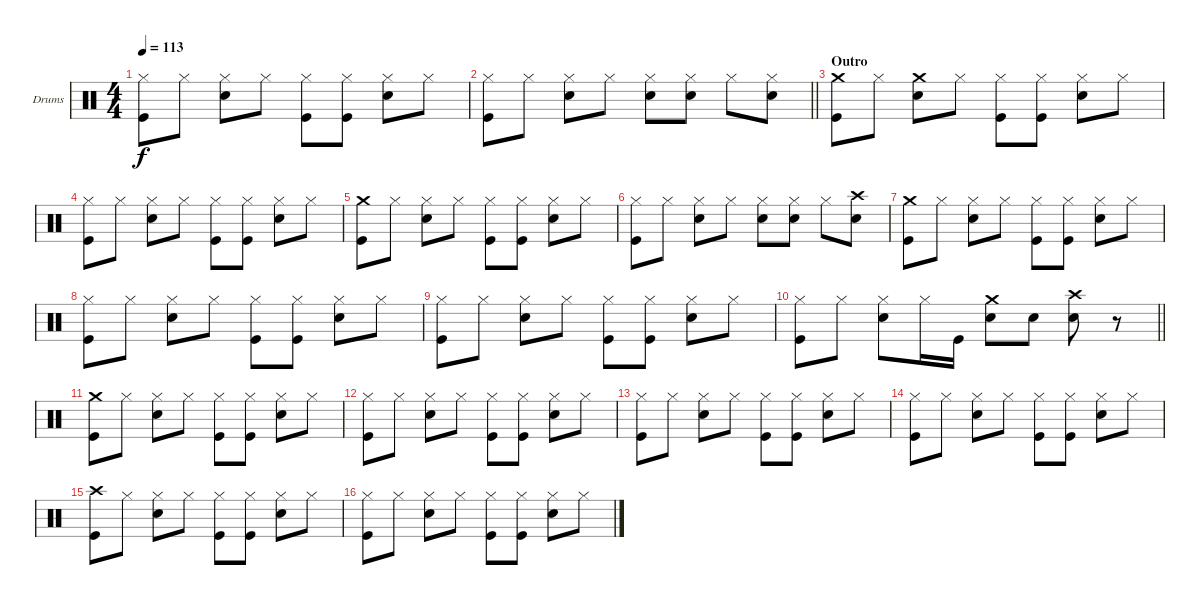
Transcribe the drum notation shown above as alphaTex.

\bracketExtendMode groupsimilarinstruments
\firstSystemTrackNameOrientation horizontal
\otherSystemsTrackNameOrientation horizontal
\track ("Drumkit" "Drums") {instrument percussion}
\staff {score}
\articulation defaults
\ts (4 4)
\tempo 113
\clef neutral
\ks c
("Hi-Hat (closed)" "Kick (hit)").8{dy f} "Hi-Hat (closed)".8 ("Hi-Hat (closed)" "Snare (hit) 2").8 "Hi-Hat (closed)".8 ("Hi-Hat (closed)" "Kick (hit)").8 ("Hi-Hat (closed)" "Kick (hit)").8 ("Hi-Hat (closed)" "Snare (hit) 2").8 "Hi-Hat (closed)".8 |
\barLineRight lightlight
("Hi-Hat (closed)" "Kick (hit)").8 "Hi-Hat (closed)".8 ("Hi-Hat (closed)" "Snare (hit) 2").8 "Hi-Hat (closed)".8 ("Hi-Hat (closed)" "Snare (hit) 2").8 ("Hi-Hat (closed)" "Snare (hit) 2").8 "Hi-Hat (closed)".8 ("Hi-Hat (closed)" "Snare (hit) 2").8 |
\section ("" "Outro")
("Crash medium (hit)" "Kick (hit)").8 "Hi-Hat (closed)".8 ("Crash medium (hit)" "Snare (hit) 2").8 "Hi-Hat (closed)".8 ("Hi-Hat (closed)" "Kick (hit)").8 ("Hi-Hat (closed)" "Kick (hit)").8 ("Hi-Hat (closed)" "Snare (hit) 2").8 "Hi-Hat (closed)".8 |
("Hi-Hat (closed)" "Kick (hit)").8 "Hi-Hat (closed)".8 ("Hi-Hat (closed)" "Snare (hit) 2").8 "Hi-Hat (closed)".8 ("Hi-Hat (closed)" "Kick (hit)").8 ("Hi-Hat (closed)" "Kick (hit)").8 ("Hi-Hat (closed)" "Snare (hit) 2").8 "Hi-Hat (closed)".8 |
("Crash medium (hit)" "Kick (hit)").8 "Hi-Hat (closed)".8 ("Hi-Hat (closed)" "Snare (hit) 2").8 "Hi-Hat (closed)".8 ("Hi-Hat (closed)" "Kick (hit)").8 ("Hi-Hat (closed)" "Kick (hit)").8 ("Hi-Hat (closed)" "Snare (hit) 2").8 "Hi-Hat (closed)".8 |
("Hi-Hat (closed)" "Kick (hit)").8 "Hi-Hat (closed)".8 ("Hi-Hat (closed)" "Snare (hit) 2").8 "Hi-Hat (closed)".8 ("Hi-Hat (closed)" "Snare (hit) 2").8 ("Hi-Hat (closed)" "Snare (hit) 2").8 "Hi-Hat (closed)".8 ("Crash high (hit)" "Snare (hit) 2").8 |
("Crash medium (hit)" "Kick (hit)").8 "Hi-Hat (closed)".8 ("Hi-Hat (closed)" "Snare (hit) 2").8 "Hi-Hat (closed)".8 ("Hi-Hat (closed)" "Kick (hit)").8 ("Hi-Hat (closed)" "Kick (hit)").8 ("Hi-Hat (closed)" "Snare (hit) 2").8 "Hi-Hat (closed)".8 |
("Hi-Hat (closed)" "Kick (hit)").8 "Hi-Hat (closed)".8 ("Hi-Hat (closed)" "Snare (hit) 2").8 "Hi-Hat (closed)".8 ("Hi-Hat (closed)" "Kick (hit)").8 ("Hi-Hat (closed)" "Kick (hit)").8 ("Hi-Hat (closed)" "Snare (hit) 2").8 "Hi-Hat (closed)".8 |
("Hi-Hat (closed)" "Kick (hit)").8 "Hi-Hat (closed)".8 ("Hi-Hat (closed)" "Snare (hit) 2").8 "Hi-Hat (closed)".8 ("Hi-Hat (closed)" "Kick (hit)").8 ("Hi-Hat (closed)" "Kick (hit)").8 ("Hi-Hat (closed)" "Snare (hit) 2").8 "Hi-Hat (closed)".8 |
\barLineRight lightlight
("Hi-Hat (closed)" "Kick (hit)").8 "Hi-Hat (closed)".8 ("Hi-Hat (closed)" "Snare (hit) 2").8 "Hi-Hat (closed)".16 "Kick (hit)".16 ("Crash medium (hit)" "Snare (hit) 2").8 "Snare (hit) 2".8 ("Crash high (hit)" "Snare (hit) 2").8 r.8 |
("Crash medium (hit)" "Kick (hit)").8 "Hi-Hat (closed)".8 ("Hi-Hat (closed)" "Snare (hit) 2").8 "Hi-Hat (closed)".8 ("Hi-Hat (closed)" "Kick (hit)").8 ("Hi-Hat (closed)" "Kick (hit)").8 ("Hi-Hat (closed)" "Snare (hit) 2").8 "Hi-Hat (closed)".8 |
("Hi-Hat (closed)" "Kick (hit)").8 "Hi-Hat (closed)".8 ("Hi-Hat (closed)" "Snare (hit) 2").8 "Hi-Hat (closed)".8 ("Hi-Hat (closed)" "Kick (hit)").8 ("Hi-Hat (closed)" "Kick (hit)").8 ("Hi-Hat (closed)" "Snare (hit) 2").8 "Hi-Hat (closed)".8 |
("Hi-Hat (closed)" "Kick (hit)").8 "Hi-Hat (closed)".8 ("Hi-Hat (closed)" "Snare (hit) 2").8 "Hi-Hat (closed)".8 ("Hi-Hat (closed)" "Kick (hit)").8 ("Hi-Hat (closed)" "Kick (hit)").8 ("Hi-Hat (closed)" "Snare (hit) 2").8 "Hi-Hat (closed)".8 |
("Hi-Hat (closed)" "Kick (hit)").8 "Hi-Hat (closed)".8 ("Hi-Hat (closed)" "Snare (hit) 2").8 "Hi-Hat (closed)".8 ("Hi-Hat (closed)" "Kick (hit)").8 ("Hi-Hat (closed)" "Kick (hit)").8 ("Hi-Hat (closed)" "Snare (hit) 2").8 "Hi-Hat (closed)".8 |
("Crash high (hit)" "Kick (hit)").8 "Hi-Hat (closed)".8 ("Hi-Hat (closed)" "Snare (hit) 2").8 "Hi-Hat (closed)".8 ("Hi-Hat (closed)" "Kick (hit)").8 ("Hi-Hat (closed)" "Kick (hit)").8 ("Hi-Hat (closed)" "Snare (hit) 2").8 "Hi-Hat (closed)".8 |
("Hi-Hat (closed)" "Kick (hit)").8 "Hi-Hat (closed)".8 ("Hi-Hat (closed)" "Snare (hit) 2").8 "Hi-Hat (closed)".8 ("Hi-Hat (closed)" "Kick (hit)").8 ("Hi-Hat (closed)" "Kick (hit)").8 ("Hi-Hat (closed)" "Snare (hit) 2").8 "Hi-Hat (closed)".8
